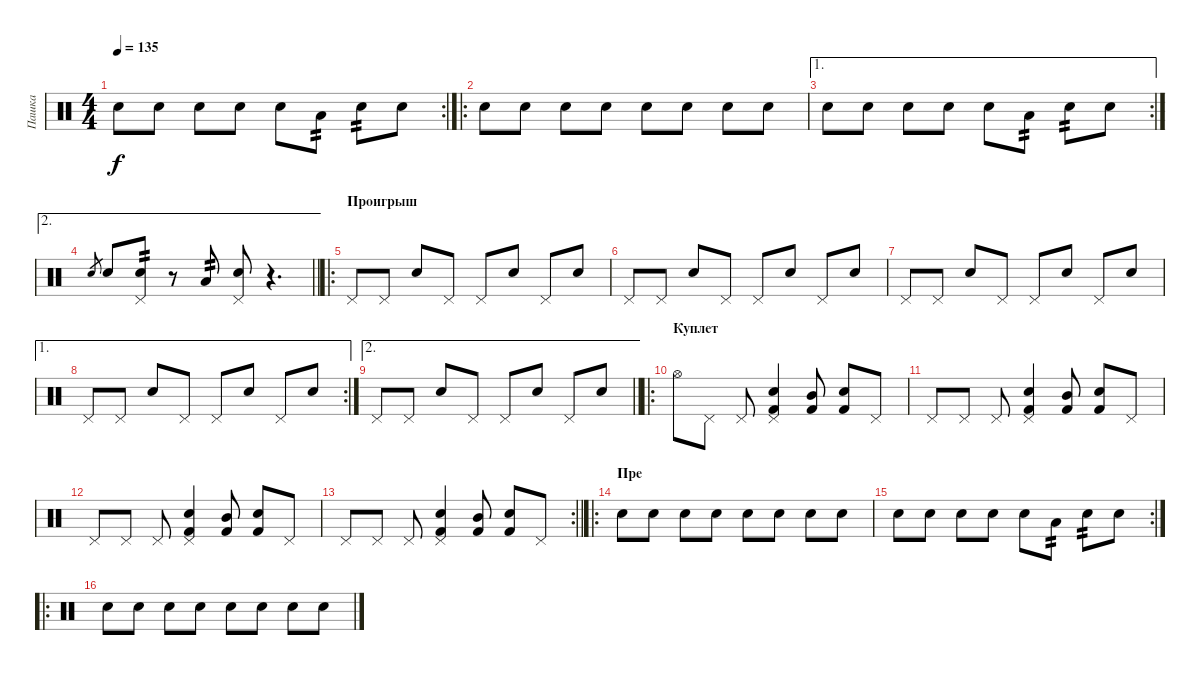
\track ("Пашка" "Пашка") {instrument percussion}
\staff {score}
\articulation defaults
\rc 2
\ts (4 4)
\tempo 135
\clef neutral
\ks c "Snare (hit) 2".8{dy f} "Snare (hit) 2".8 "Snare (hit) 2".8 "Snare (hit) 2".8 "Snare (hit) 2".8 "Low Tom (hit)".8{tp 2} "Snare (hit) 2".8{tp 2} "Snare (hit) 2".8
|
\ro "Snare (hit) 2".8 "Snare (hit) 2".8 "Snare (hit) 2".8 "Snare (hit) 2".8 "Snare (hit) 2".8 "Snare (hit) 2".8 "Snare (hit) 2".8 "Snare (hit) 2".8
|
\ae 1
\rc 2 "Snare (hit) 2".8 "Snare (hit) 2".8 "Snare (hit) 2".8 "Snare (hit) 2".8 "Snare (hit) 2".8 "Low Tom (hit)".8{tp 2} "Snare (hit) 2".8{tp 2} "Snare (hit) 2".8
|
\ae 2
\barLineRight lightlight "Snare (hit) 2".8{gr} "Snare (hit) 2".8
("Snare (hit) 2" "Pedal Hi-Hat (hit)").8{tp 2} r.8 "Low Tom (hit)".8{tp 2} ("Snare (hit) 2" "Pedal Hi-Hat (hit)").8 r.4{d} |
\ro
\section ("" "Проигрыш")
"Pedal Hi-Hat (hit)".8 "Pedal Hi-Hat (hit)".8 "Snare (hit) 2".8 "Pedal Hi-Hat (hit)".8 "Pedal Hi-Hat (hit)".8 "Snare (hit) 2".8 "Pedal Hi-Hat (hit)".8 "Snare (hit) 2".8 |
"Pedal Hi-Hat (hit)".8 "Pedal Hi-Hat (hit)".8 "Snare (hit) 2".8 "Pedal Hi-Hat (hit)".8 "Pedal Hi-Hat (hit)".8 "Snare (hit) 2".8 "Pedal Hi-Hat (hit)".8 "Snare (hit) 2".8 |
"Pedal Hi-Hat (hit)".8 "Pedal Hi-Hat (hit)".8 "Snare (hit) 2".8 "Pedal Hi-Hat (hit)".8 "Pedal Hi-Hat (hit)".8 "Snare (hit) 2".8 "Pedal Hi-Hat (hit)".8 "Snare (hit) 2".8 |
\ae 1
\rc 2 "Pedal Hi-Hat (hit)".8 "Pedal Hi-Hat (hit)".8 "Snare (hit) 2".8 "Pedal Hi-Hat (hit)".8 "Pedal Hi-Hat (hit)".8 "Snare (hit) 2".8 "Pedal Hi-Hat (hit)".8 "Snare (hit) 2".8
|
\ae 2
\barLineRight lightlight "Pedal Hi-Hat (hit)".8 "Pedal Hi-Hat (hit)".8 "Snare (hit) 2".8 "Pedal Hi-Hat (hit)".8 "Pedal Hi-Hat (hit)".8 "Snare (hit) 2".8 "Pedal Hi-Hat (hit)".8 "Snare (hit) 2".8
|
\ro
\section ("" "Куплет")
"Hi-Hat (open)".8 "Pedal Hi-Hat (hit)".8 "Pedal Hi-Hat (hit)".8 ("Pedal Hi-Hat (hit)" "Snare (hit) 2" "Kick (hit) 2").4 ("Mid Tom (hit)" "Kick (hit) 2").8 ("Snare (hit) 2" "Kick (hit) 2").8 "Pedal Hi-Hat (hit)".8 |
"Pedal Hi-Hat (hit)".8 "Pedal Hi-Hat (hit)".8 "Pedal Hi-Hat (hit)".8 ("Pedal Hi-Hat (hit)" "Snare (hit) 2" "Kick (hit) 2").4 ("Mid Tom (hit)" "Kick (hit) 2").8 ("Snare (hit) 2" "Kick (hit) 2").8 "Pedal Hi-Hat (hit)".8 |
"Pedal Hi-Hat (hit)".8 "Pedal Hi-Hat (hit)".8 "Pedal Hi-Hat (hit)".8 ("Pedal Hi-Hat (hit)" "Snare (hit) 2" "Kick (hit) 2").4 ("Mid Tom (hit)" "Kick (hit) 2").8 ("Snare (hit) 2" "Kick (hit) 2").8 "Pedal Hi-Hat (hit)".8 |
\rc 2
\barLineRight lightlight "Pedal Hi-Hat (hit)".8 "Pedal Hi-Hat (hit)".8 "Pedal Hi-Hat (hit)".8
("Pedal Hi-Hat (hit)" "Snare (hit) 2" "Kick (hit) 2").4 ("Mid Tom (hit)" "Kick (hit) 2").8 ("Snare (hit) 2" "Kick (hit) 2").8 "Pedal Hi-Hat (hit)".8 |
\ro
\section ("" "Пре")
"Snare (hit) 2".8 "Snare (hit) 2".8 "Snare (hit) 2".8 "Snare (hit) 2".8 "Snare (hit) 2".8 "Snare (hit) 2".8 "Snare (hit) 2".8 "Snare (hit) 2".8 |
\rc 2 "Snare (hit) 2".8 "Snare (hit) 2".8 "Snare (hit) 2".8 "Snare (hit) 2".8 "Snare (hit) 2".8 "Low Tom (hit)".8{tp 2} "Snare (hit) 2".8{tp 2} "Snare (hit) 2".8
|
\ro "Snare (hit) 2".8 "Snare (hit) 2".8 "Snare (hit) 2".8 "Snare (hit) 2".8 "Snare (hit) 2".8 "Snare (hit) 2".8 "Snare (hit) 2".8 "Snare (hit) 2".8
